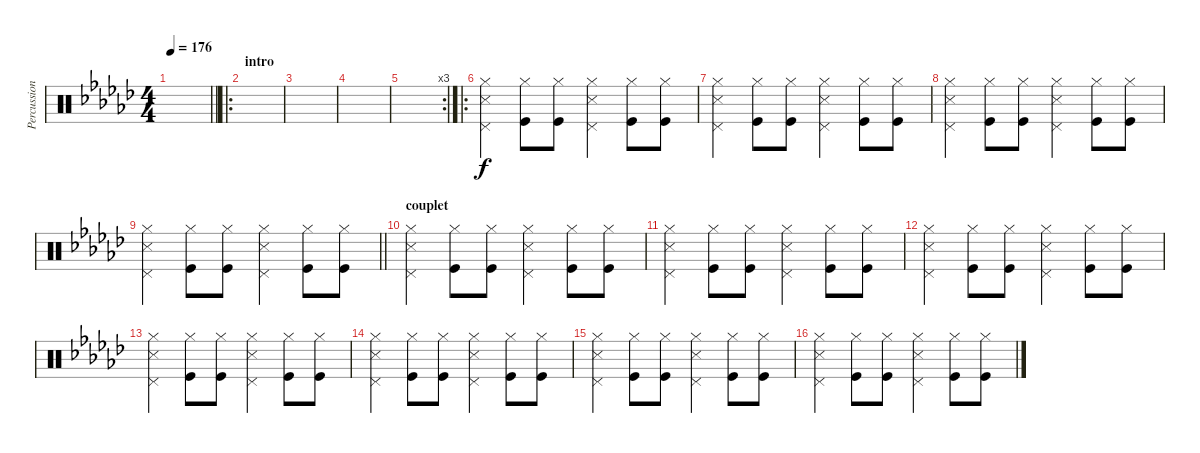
\track ("Percussions" "Percussion") {instrument percussion}
\staff {score}
\articulation defaults
\ts (4 4)
\tempo 176
\clef neutral
\barLineRight lightlight
\ks gb
|
\ro
\section ("" "intro")
|
|
|
\rc 3
|
\ro
("Snare (side stick) 3" "Pedal Hi-Hat (hit)" "Hi-Hat (closed)").4 ("Kick (hit)" "Hi-Hat (closed)").8 ("Kick (hit)" "Hi-Hat (closed)").8 ("Snare (side stick) 3" "Pedal Hi-Hat (hit)" "Hi-Hat (closed)").4 ("Kick (hit)" "Hi-Hat (closed)").8 ("Kick (hit)" "Hi-Hat (closed)").8 |
("Snare (side stick) 3" "Pedal Hi-Hat (hit)" "Hi-Hat (closed)").4 ("Kick (hit)" "Hi-Hat (closed)").8 ("Kick (hit)" "Hi-Hat (closed)").8 ("Snare (side stick) 3" "Pedal Hi-Hat (hit)" "Hi-Hat (closed)").4 ("Kick (hit)" "Hi-Hat (closed)").8 ("Kick (hit)" "Hi-Hat (closed)").8 |
("Snare (side stick) 3" "Pedal Hi-Hat (hit)" "Hi-Hat (closed)").4 ("Kick (hit)" "Hi-Hat (closed)").8 ("Kick (hit)" "Hi-Hat (closed)").8 ("Snare (side stick) 3" "Pedal Hi-Hat (hit)" "Hi-Hat (closed)").4 ("Kick (hit)" "Hi-Hat (closed)").8 ("Kick (hit)" "Hi-Hat (closed)").8 |
\barLineRight lightlight
("Snare (side stick) 3" "Pedal Hi-Hat (hit)" "Hi-Hat (closed)").4 ("Kick (hit)" "Hi-Hat (closed)").8 ("Kick (hit)" "Hi-Hat (closed)").8 ("Snare (side stick) 3" "Pedal Hi-Hat (hit)" "Hi-Hat (closed)").4 ("Kick (hit)" "Hi-Hat (closed)").8 ("Kick (hit)" "Hi-Hat (closed)").8 |
\section ("" "couplet")
("Snare (side stick) 3" "Pedal Hi-Hat (hit)" "Hi-Hat (closed)").4 ("Kick (hit)" "Hi-Hat (closed)").8 ("Kick (hit)" "Hi-Hat (closed)").8 ("Snare (side stick) 3" "Pedal Hi-Hat (hit)" "Hi-Hat (closed)").4 ("Kick (hit)" "Hi-Hat (closed)").8 ("Kick (hit)" "Hi-Hat (closed)").8 |
("Snare (side stick) 3" "Pedal Hi-Hat (hit)" "Hi-Hat (closed)").4 ("Kick (hit)" "Hi-Hat (closed)").8 ("Kick (hit)" "Hi-Hat (closed)").8 ("Snare (side stick) 3" "Pedal Hi-Hat (hit)" "Hi-Hat (closed)").4 ("Kick (hit)" "Hi-Hat (closed)").8 ("Kick (hit)" "Hi-Hat (closed)").8 |
("Snare (side stick) 3" "Pedal Hi-Hat (hit)" "Hi-Hat (closed)").4 ("Kick (hit)" "Hi-Hat (closed)").8 ("Kick (hit)" "Hi-Hat (closed)").8 ("Snare (side stick) 3" "Pedal Hi-Hat (hit)" "Hi-Hat (closed)").4 ("Kick (hit)" "Hi-Hat (closed)").8 ("Kick (hit)" "Hi-Hat (closed)").8 |
("Snare (side stick) 3" "Pedal Hi-Hat (hit)" "Hi-Hat (closed)").4 ("Kick (hit)" "Hi-Hat (closed)").8 ("Kick (hit)" "Hi-Hat (closed)").8 ("Snare (side stick) 3" "Pedal Hi-Hat (hit)" "Hi-Hat (closed)").4 ("Kick (hit)" "Hi-Hat (closed)").8 ("Kick (hit)" "Hi-Hat (closed)").8 |
("Snare (side stick) 3" "Pedal Hi-Hat (hit)" "Hi-Hat (closed)").4 ("Kick (hit)" "Hi-Hat (closed)").8 ("Kick (hit)" "Hi-Hat (closed)").8 ("Snare (side stick) 3" "Pedal Hi-Hat (hit)" "Hi-Hat (closed)").4 ("Kick (hit)" "Hi-Hat (closed)").8 ("Kick (hit)" "Hi-Hat (closed)").8 |
("Snare (side stick) 3" "Pedal Hi-Hat (hit)" "Hi-Hat (closed)").4 ("Kick (hit)" "Hi-Hat (closed)").8 ("Kick (hit)" "Hi-Hat (closed)").8 ("Snare (side stick) 3" "Pedal Hi-Hat (hit)" "Hi-Hat (closed)").4 ("Kick (hit)" "Hi-Hat (closed)").8 ("Kick (hit)" "Hi-Hat (closed)").8 |
("Snare (side stick) 3" "Pedal Hi-Hat (hit)" "Hi-Hat (closed)").4 ("Kick (hit)" "Hi-Hat (closed)").8 ("Kick (hit)" "Hi-Hat (closed)").8 ("Snare (side stick) 3" "Pedal Hi-Hat (hit)" "Hi-Hat (closed)").4 ("Kick (hit)" "Hi-Hat (closed)").8 ("Kick (hit)" "Hi-Hat (closed)").8
